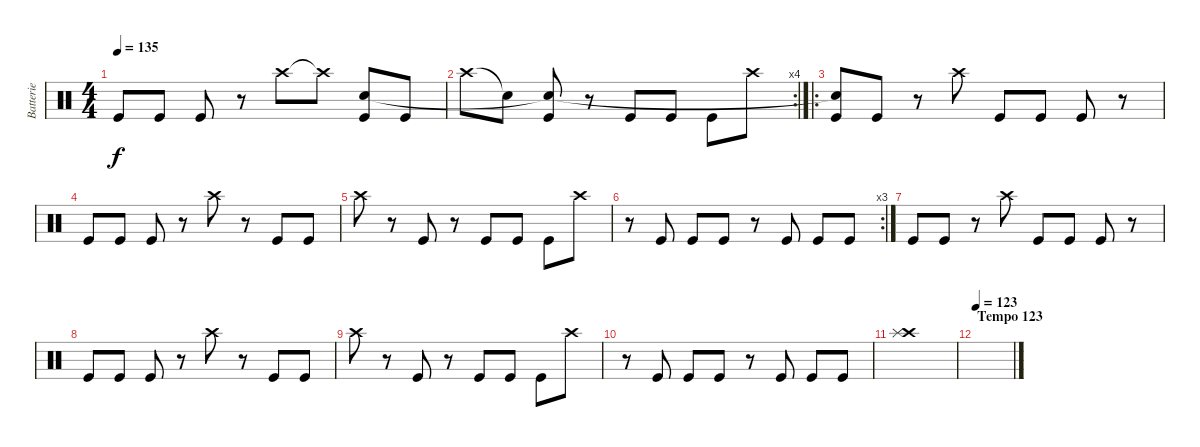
\track ("Batterie" "Batterie") {instrument percussion}
\staff {score}
\articulation defaults
\ts (4 4)
\tempo 135
\clef neutral
\ks c "Kick (hit)".8{dy f} "Kick (hit)".8 "Kick (hit)".8
r.8 "Crash high (hit)".8 "Crash high (hit)"{t}.8 ("Kick (hit)" "Snare (hit)"{t}).8 "Kick (hit)".8 |
\rc 4 "Crash high (hit)".8 "Snare (hit)"{t}.8
("Kick (hit)" "Snare (hit)"{t}).8 r.8 "Kick (hit)".8 "Kick (hit)".8 "Kick (hit)".8 "Crash high (hit)".8 |
\ro
("Kick (hit)" "Snare (hit)"{t}).8 "Kick (hit)".8 r.8 "Crash high (hit)".8 "Kick (hit)".8 "Kick (hit)".8 "Kick (hit)".8 r.8 |
"Kick (hit)".8 "Kick (hit)".8 "Kick (hit)".8 r.8 "Crash high (hit)".8 r.8 "Kick (hit)".8 "Kick (hit)".8 |
"Crash high (hit)".8 r.8 "Kick (hit)".8 r.8 "Kick (hit)".8 "Kick (hit)".8 "Kick (hit)".8 "Crash high (hit)".8 |
\rc 3
r.8 "Kick (hit)".8 "Kick (hit)".8 "Kick (hit)".8 r.8 "Kick (hit)".8 "Kick (hit)".8 "Kick (hit)".8 |
"Kick (hit)".8 "Kick (hit)".8 r.8 "Crash high (hit)".8 "Kick (hit)".8 "Kick (hit)".8 "Kick (hit)".8 r.8 |
"Kick (hit)".8 "Kick (hit)".8 "Kick (hit)".8 r.8 "Crash high (hit)".8 r.8 "Kick (hit)".8 "Kick (hit)".8 |
"Crash high (hit)".8 r.8 "Kick (hit)".8 r.8 "Kick (hit)".8 "Kick (hit)".8 "Kick (hit)".8 "Crash high (hit)".8 |
r.8 "Kick (hit)".8 "Kick (hit)".8 "Kick (hit)".8 r.8 "Kick (hit)".8 "Kick (hit)".8 "Kick (hit)".8 |
("Crash high (hit)" "Splash (hit)").1 |
\section ("" "Tempo 123")
\tempo 123
